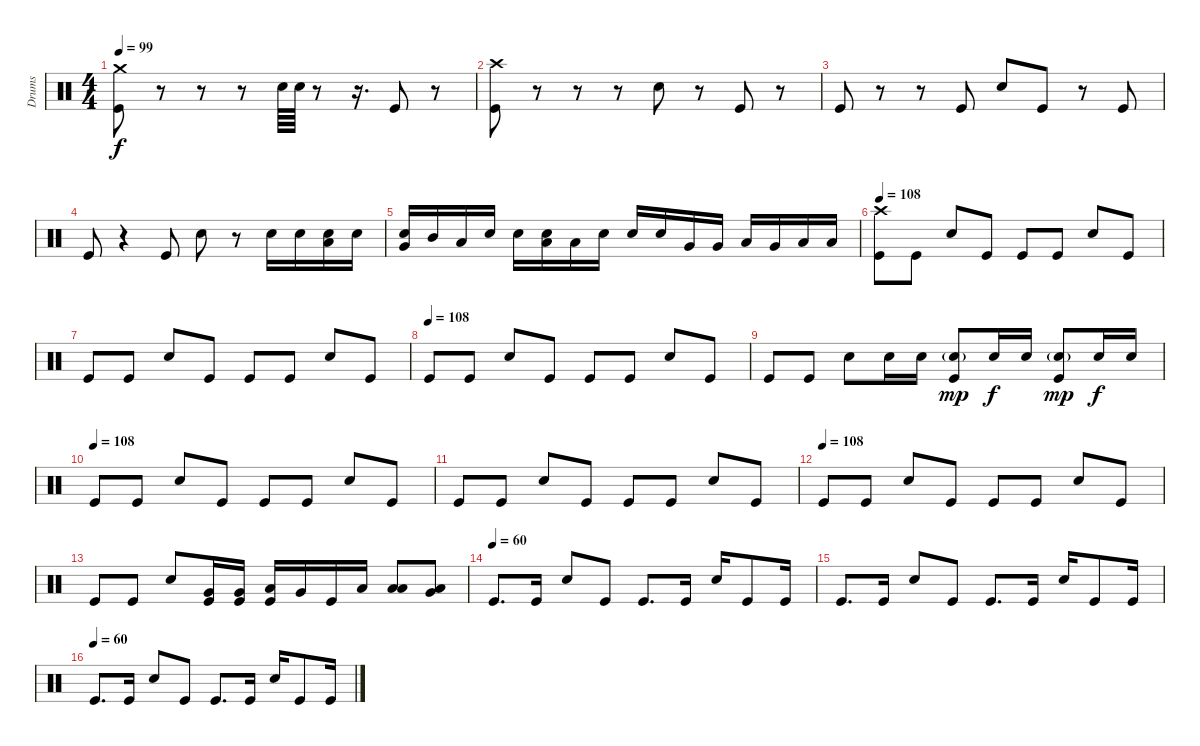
\track ("Drums" "Drums") {instrument percussion}
\staff {score}
\articulation defaults
\ts (4 4)
\tempo 99
\clef neutral
\ks c
("Crash medium (hit)" "Kick (hit)").8{dy f} r.8 r.8 r.8 "Snare (hit) 2".64 "Snare (hit) 2".64 r.8 r.16{d} "Kick (hit)".8 r.8 |
("Crash high (hit)" "Kick (hit)").8 r.8 r.8 r.8 "Snare (hit) 2".8 r.8 "Kick (hit)".8 r.8 |
"Kick (hit)".8 r.8 r.8 "Kick (hit)".8 "Snare (hit) 2".8 "Kick (hit)".8 r.8 "Kick (hit)".8 |
"Kick (hit)".8 r.4 "Kick (hit)".8 "Snare (hit) 2".8 r.8 "Snare (hit) 2".16 "Snare (hit) 2".16 ("Low Tom (hit)" "Snare (hit) 2").16 "Snare (hit) 2".16 |
("Very Low Tom (hit)" "Snare (hit) 2").16 "Mid Tom (hit)".16 "Low Tom (hit)".16 "Snare (hit) 2".16 "Snare (hit) 2".16 ("Low Tom (hit)" "Snare (hit) 2").16 "Low Tom (hit)".16 "Snare (hit) 2".16 "Snare (hit) 2".16 "Snare (hit) 2".16 "Very Low Tom (hit)".16 "Very Low Tom (hit)".16 "Low Floor Tom (hit)".16 "Very Low Tom (hit)".16 "Low Floor Tom (hit)".16 "Low Floor Tom (hit)".16 |
\tempo 108
("Crash high (hit)" "Kick (hit)").8 "Kick (hit)".8 "Snare (hit) 2".8 "Kick (hit)".8 "Kick (hit)".8 "Kick (hit)".8 "Snare (hit) 2".8 "Kick (hit)".8 |
"Kick (hit)".8 "Kick (hit)".8 "Snare (hit) 2".8 "Kick (hit)".8 "Kick (hit)".8 "Kick (hit)".8 "Snare (hit) 2".8 "Kick (hit)".8 |
\tempo (108)
"Kick (hit)".8 "Kick (hit)".8 "Snare (hit) 2".8 "Kick (hit)".8 "Kick (hit)".8 "Kick (hit)".8 "Snare (hit) 2".8 "Kick (hit)".8 |
"Kick (hit)".8 "Kick (hit)".8 "Snare (hit) 2".8 "Snare (hit) 2".16 "Snare (hit) 2".16 ("Snare (hit) 2"{g} "Kick (hit)").8{dy mp} "Snare (hit) 2".16{dy f} "Snare (hit) 2".16 ("Snare (hit) 2"{g} "Kick (hit)").8{dy mp} "Snare (hit) 2".16{dy f} "Snare (hit) 2".16 |
\tempo (108)
"Kick (hit)".8 "Kick (hit)".8 "Snare (hit) 2".8 "Kick (hit)".8 "Kick (hit)".8 "Kick (hit)".8 "Snare (hit) 2".8 "Kick (hit)".8 |
"Kick (hit)".8 "Kick (hit)".8 "Snare (hit) 2".8 "Kick (hit)".8 "Kick (hit)".8 "Kick (hit)".8 "Snare (hit) 2".8 "Kick (hit)".8 |
\tempo (108)
"Kick (hit)".8 "Kick (hit)".8 "Snare (hit) 2".8 "Kick (hit)".8 "Kick (hit)".8 "Kick (hit)".8 "Snare (hit) 2".8 "Kick (hit)".8 |
"Kick (hit)".8 "Kick (hit)".8 "Snare (hit) 2".8 ("Very Low Tom (hit)" "Kick (hit)").16 ("Very Low Tom (hit)" "Kick (hit)").16 ("Low Tom (hit)" "Kick (hit)").16 "Very Low Tom (hit)".16 "Kick (hit)".16 "Low Floor Tom (hit)".16 ("Low Tom (hit)" "Low Floor Tom (hit)").8 ("Very Low Tom (hit)" "Low Floor Tom (hit)").8 |
\tempo (60)
"Kick (hit)".8{d} "Kick (hit)".16 "Snare (hit) 2".8 "Kick (hit)".8 "Kick (hit)".8{d} "Kick (hit)".16 "Snare (hit) 2".16 "Kick (hit)".8 "Kick (hit)".16 |
"Kick (hit)".8{d} "Kick (hit)".16 "Snare (hit) 2".8 "Kick (hit)".8 "Kick (hit)".8{d} "Kick (hit)".16 "Snare (hit) 2".16 "Kick (hit)".8 "Kick (hit)".16 |
\tempo (60)
"Kick (hit)".8{d} "Kick (hit)".16 "Snare (hit) 2".8 "Kick (hit)".8 "Kick (hit)".8{d} "Kick (hit)".16 "Snare (hit) 2".16 "Kick (hit)".8 "Kick (hit)".16
